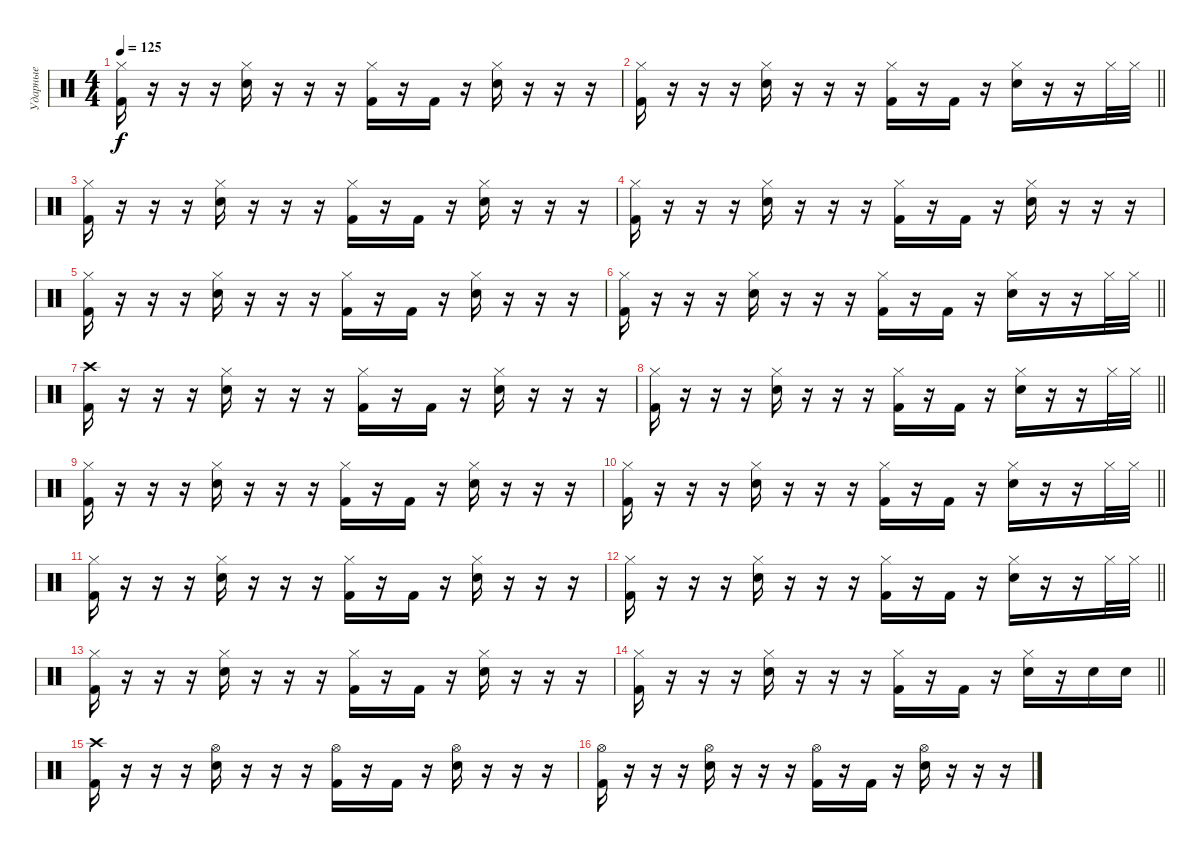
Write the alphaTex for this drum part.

\track ("Ударные" "Ударные") {instrument percussion}
\staff {score}
\articulation defaults
\ts (4 4)
\tempo 125
\clef neutral
\ks c
("Hi-Hat (closed)" "Kick (hit) 2").16{dy f} r.16 r.16 r.16 ("Hi-Hat (closed)" "Electric Snare (hit)").16 r.16 r.16 r.16 ("Hi-Hat (closed)" "Kick (hit) 2").16 r.16 "Kick (hit) 2".16 r.16 ("Hi-Hat (closed)" "Electric Snare (hit)").16 r.16 r.16 r.16 |
\barLineRight lightlight
("Hi-Hat (closed)" "Kick (hit) 2").16 r.16 r.16 r.16 ("Hi-Hat (closed)" "Electric Snare (hit)").16 r.16 r.16 r.16 ("Hi-Hat (closed)" "Kick (hit) 2").16 r.16 "Kick (hit) 2".16 r.16 ("Hi-Hat (closed)" "Electric Snare (hit)").16 r.16 r.16 "Hi-Hat (closed)".32 "Hi-Hat (closed)".32 |
("Hi-Hat (closed)" "Kick (hit) 2").16 r.16 r.16 r.16 ("Hi-Hat (closed)" "Electric Snare (hit)").16 r.16 r.16 r.16 ("Hi-Hat (closed)" "Kick (hit) 2").16 r.16 "Kick (hit) 2".16 r.16 ("Hi-Hat (closed)" "Electric Snare (hit)").16 r.16 r.16 r.16 |
("Hi-Hat (closed)" "Kick (hit) 2").16 r.16 r.16 r.16 ("Hi-Hat (closed)" "Electric Snare (hit)").16 r.16 r.16 r.16 ("Hi-Hat (closed)" "Kick (hit) 2").16 r.16 "Kick (hit) 2".16 r.16 ("Hi-Hat (closed)" "Electric Snare (hit)").16 r.16 r.16 r.16 |
("Hi-Hat (closed)" "Kick (hit) 2").16 r.16 r.16 r.16 ("Hi-Hat (closed)" "Electric Snare (hit)").16 r.16 r.16 r.16 ("Hi-Hat (closed)" "Kick (hit) 2").16 r.16 "Kick (hit) 2".16 r.16 ("Hi-Hat (closed)" "Electric Snare (hit)").16 r.16 r.16 r.16 |
\barLineRight lightlight
("Hi-Hat (closed)" "Kick (hit) 2").16 r.16 r.16 r.16 ("Hi-Hat (closed)" "Electric Snare (hit)").16 r.16 r.16 r.16 ("Hi-Hat (closed)" "Kick (hit) 2").16 r.16 "Kick (hit) 2".16 r.16 ("Hi-Hat (closed)" "Electric Snare (hit)").16 r.16 r.16 "Hi-Hat (closed)".32 "Hi-Hat (closed)".32 |
("Crash high (hit)" "Kick (hit) 2").16 r.16 r.16 r.16 ("Hi-Hat (closed)" "Electric Snare (hit)").16 r.16 r.16 r.16 ("Hi-Hat (closed)" "Kick (hit) 2").16 r.16 "Kick (hit) 2".16 r.16 ("Hi-Hat (closed)" "Electric Snare (hit)").16 r.16 r.16 r.16 |
\barLineRight lightlight
("Hi-Hat (closed)" "Kick (hit) 2").16 r.16 r.16 r.16 ("Hi-Hat (closed)" "Electric Snare (hit)").16 r.16 r.16 r.16 ("Hi-Hat (closed)" "Kick (hit) 2").16 r.16 "Kick (hit) 2".16 r.16 ("Hi-Hat (closed)" "Electric Snare (hit)").16 r.16 r.16 "Hi-Hat (closed)".32 "Hi-Hat (closed)".32 |
("Hi-Hat (closed)" "Kick (hit) 2").16 r.16 r.16 r.16 ("Hi-Hat (closed)" "Electric Snare (hit)").16 r.16 r.16 r.16 ("Hi-Hat (closed)" "Kick (hit) 2").16 r.16 "Kick (hit) 2".16 r.16 ("Hi-Hat (closed)" "Electric Snare (hit)").16 r.16 r.16 r.16 |
\barLineRight lightlight
("Hi-Hat (closed)" "Kick (hit) 2").16 r.16 r.16 r.16 ("Hi-Hat (closed)" "Electric Snare (hit)").16 r.16 r.16 r.16 ("Hi-Hat (closed)" "Kick (hit) 2").16 r.16 "Kick (hit) 2".16 r.16 ("Hi-Hat (closed)" "Electric Snare (hit)").16 r.16 r.16 "Hi-Hat (closed)".32 "Hi-Hat (closed)".32 |
("Hi-Hat (closed)" "Kick (hit) 2").16 r.16 r.16 r.16 ("Hi-Hat (closed)" "Electric Snare (hit)").16 r.16 r.16 r.16 ("Hi-Hat (closed)" "Kick (hit) 2").16 r.16 "Kick (hit) 2".16 r.16 ("Hi-Hat (closed)" "Electric Snare (hit)").16 r.16 r.16 r.16 |
\barLineRight lightlight
("Hi-Hat (closed)" "Kick (hit) 2").16 r.16 r.16 r.16 ("Hi-Hat (closed)" "Electric Snare (hit)").16 r.16 r.16 r.16 ("Hi-Hat (closed)" "Kick (hit) 2").16 r.16 "Kick (hit) 2".16 r.16 ("Hi-Hat (closed)" "Electric Snare (hit)").16 r.16 r.16 "Hi-Hat (closed)".32 "Hi-Hat (closed)".32 |
("Hi-Hat (closed)" "Kick (hit) 2").16 r.16 r.16 r.16 ("Hi-Hat (closed)" "Electric Snare (hit)").16 r.16 r.16 r.16 ("Hi-Hat (closed)" "Kick (hit) 2").16 r.16 "Kick (hit) 2".16 r.16 ("Hi-Hat (closed)" "Electric Snare (hit)").16 r.16 r.16 r.16 |
\barLineRight lightlight
("Hi-Hat (closed)" "Kick (hit) 2").16 r.16 r.16 r.16 ("Hi-Hat (closed)" "Electric Snare (hit)").16 r.16 r.16 r.16 ("Hi-Hat (closed)" "Kick (hit) 2").16 r.16 "Kick (hit) 2".16 r.16 ("Hi-Hat (closed)" "Electric Snare (hit)").16 r.16 "Electric Snare (hit)".16 "Electric Snare (hit)".16 |
("Crash high (hit)" "Kick (hit) 2").16 r.16 r.16 r.16 ("Hi-Hat (open)" "Electric Snare (hit)").16 r.16 r.16 r.16 ("Hi-Hat (open)" "Kick (hit) 2").16 r.16 "Kick (hit) 2".16 r.16 ("Hi-Hat (open)" "Electric Snare (hit)").16 r.16 r.16 r.16 |
("Hi-Hat (open)" "Kick (hit) 2").16 r.16 r.16 r.16 ("Hi-Hat (open)" "Electric Snare (hit)").16 r.16 r.16 r.16 ("Hi-Hat (open)" "Kick (hit) 2").16 r.16 "Kick (hit) 2".16 r.16 ("Hi-Hat (open)" "Electric Snare (hit)").16 r.16 r.16 r.16
